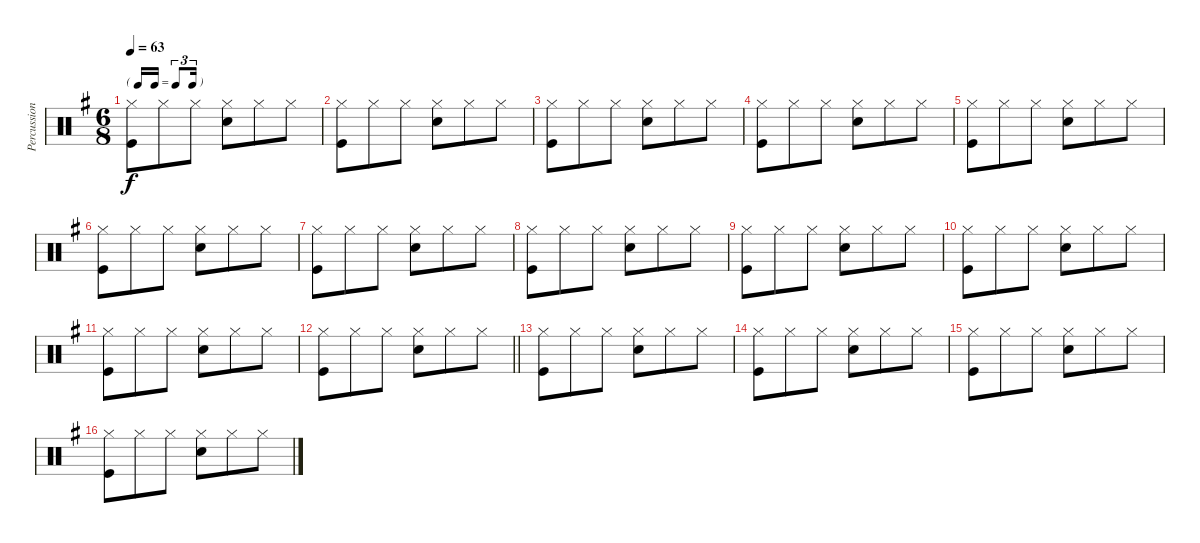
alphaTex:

\track ("Percussion" "Percussion") {instrument percussion}
\staff {score}
\articulation defaults
\ts (6 8)
\tf triplet16th
\tempo 63
\clef neutral
\ks g
("Hi-Hat (closed)" "Kick (hit)").8{dy f} "Hi-Hat (closed)".8 "Hi-Hat (closed)".8 ("Hi-Hat (closed)" "Electric Snare (hit)").8 "Hi-Hat (closed)".8 "Hi-Hat (closed)".8 |
("Hi-Hat (closed)" "Kick (hit)").8 "Hi-Hat (closed)".8 "Hi-Hat (closed)".8 ("Hi-Hat (closed)" "Electric Snare (hit)").8 "Hi-Hat (closed)".8 "Hi-Hat (closed)".8 |
("Hi-Hat (closed)" "Kick (hit)").8 "Hi-Hat (closed)".8 "Hi-Hat (closed)".8 ("Hi-Hat (closed)" "Electric Snare (hit)").8 "Hi-Hat (closed)".8 "Hi-Hat (closed)".8 |
("Hi-Hat (closed)" "Kick (hit)").8 "Hi-Hat (closed)".8 "Hi-Hat (closed)".8 ("Hi-Hat (closed)" "Electric Snare (hit)").8 "Hi-Hat (closed)".8 "Hi-Hat (closed)".8 |
("Hi-Hat (closed)" "Kick (hit)").8 "Hi-Hat (closed)".8 "Hi-Hat (closed)".8 ("Hi-Hat (closed)" "Electric Snare (hit)").8 "Hi-Hat (closed)".8 "Hi-Hat (closed)".8 |
("Hi-Hat (closed)" "Kick (hit)").8 "Hi-Hat (closed)".8 "Hi-Hat (closed)".8 ("Hi-Hat (closed)" "Electric Snare (hit)").8 "Hi-Hat (closed)".8 "Hi-Hat (closed)".8 |
("Hi-Hat (closed)" "Kick (hit)").8 "Hi-Hat (closed)".8 "Hi-Hat (closed)".8 ("Hi-Hat (closed)" "Electric Snare (hit)").8 "Hi-Hat (closed)".8 "Hi-Hat (closed)".8 |
("Hi-Hat (closed)" "Kick (hit)").8 "Hi-Hat (closed)".8 "Hi-Hat (closed)".8 ("Hi-Hat (closed)" "Electric Snare (hit)").8 "Hi-Hat (closed)".8 "Hi-Hat (closed)".8 |
("Hi-Hat (closed)" "Kick (hit)").8 "Hi-Hat (closed)".8 "Hi-Hat (closed)".8 ("Hi-Hat (closed)" "Electric Snare (hit)").8 "Hi-Hat (closed)".8 "Hi-Hat (closed)".8 |
("Hi-Hat (closed)" "Kick (hit)").8 "Hi-Hat (closed)".8 "Hi-Hat (closed)".8 ("Hi-Hat (closed)" "Electric Snare (hit)").8 "Hi-Hat (closed)".8 "Hi-Hat (closed)".8 |
("Hi-Hat (closed)" "Kick (hit)").8 "Hi-Hat (closed)".8 "Hi-Hat (closed)".8 ("Hi-Hat (closed)" "Electric Snare (hit)").8 "Hi-Hat (closed)".8 "Hi-Hat (closed)".8 |
\barLineRight lightlight
("Hi-Hat (closed)" "Kick (hit)").8 "Hi-Hat (closed)".8 "Hi-Hat (closed)".8 ("Hi-Hat (closed)" "Electric Snare (hit)").8 "Hi-Hat (closed)".8 "Hi-Hat (closed)".8 |
("Hi-Hat (closed)" "Kick (hit)").8 "Hi-Hat (closed)".8 "Hi-Hat (closed)".8 ("Hi-Hat (closed)" "Electric Snare (hit)").8 "Hi-Hat (closed)".8 "Hi-Hat (closed)".8 |
("Hi-Hat (closed)" "Kick (hit)").8 "Hi-Hat (closed)".8 "Hi-Hat (closed)".8 ("Hi-Hat (closed)" "Electric Snare (hit)").8 "Hi-Hat (closed)".8 "Hi-Hat (closed)".8 |
("Hi-Hat (closed)" "Kick (hit)").8 "Hi-Hat (closed)".8 "Hi-Hat (closed)".8 ("Hi-Hat (closed)" "Electric Snare (hit)").8 "Hi-Hat (closed)".8 "Hi-Hat (closed)".8 |
("Hi-Hat (closed)" "Kick (hit)").8 "Hi-Hat (closed)".8 "Hi-Hat (closed)".8 ("Hi-Hat (closed)" "Electric Snare (hit)").8 "Hi-Hat (closed)".8 "Hi-Hat (closed)".8
